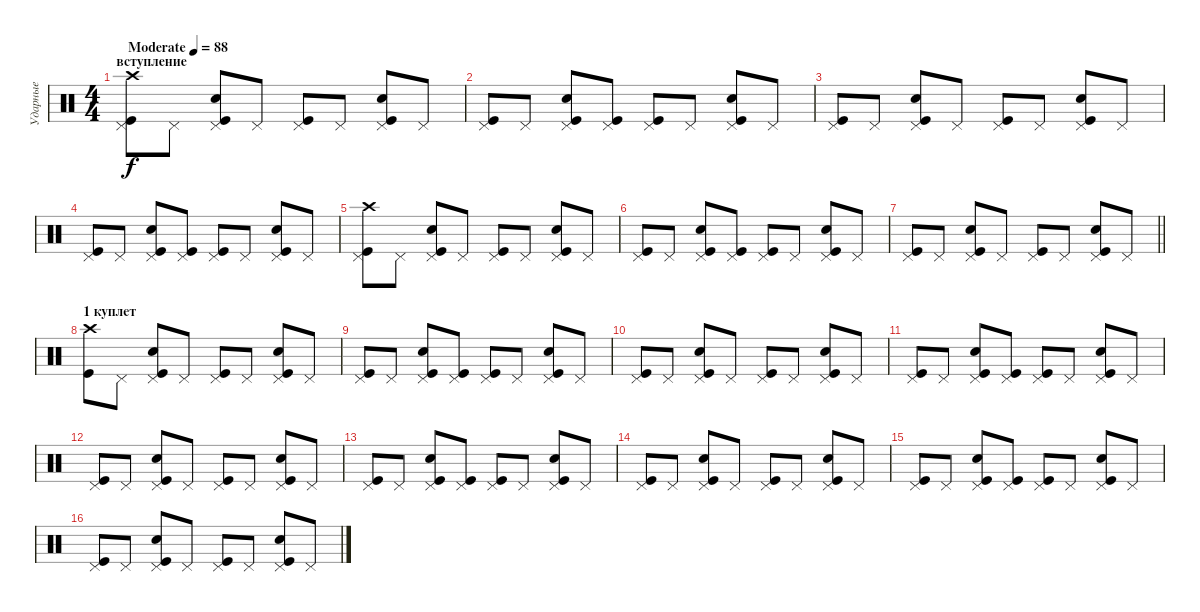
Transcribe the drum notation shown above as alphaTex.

\track ("Ударные" "Ударные") {instrument percussion}
\staff {score}
\articulation defaults
\ts (4 4)
\section ("" "вступление")
\tempo (88 "Moderate")
\clef neutral
\ks c
("Pedal Hi-Hat (hit)" "Kick (hit)" "Crash high (hit)").8{dy f} "Pedal Hi-Hat (hit)".8 ("Pedal Hi-Hat (hit)" "Kick (hit)" "Snare (hit) 2").8 "Pedal Hi-Hat (hit)".8 ("Pedal Hi-Hat (hit)" "Kick (hit)").8 "Pedal Hi-Hat (hit)".8 ("Pedal Hi-Hat (hit)" "Kick (hit)" "Snare (hit) 2").8 "Pedal Hi-Hat (hit)".8 |
("Pedal Hi-Hat (hit)" "Kick (hit)").8 "Pedal Hi-Hat (hit)".8 ("Pedal Hi-Hat (hit)" "Kick (hit)" "Snare (hit) 2").8 ("Pedal Hi-Hat (hit)" "Kick (hit)").8 ("Pedal Hi-Hat (hit)" "Kick (hit)").8 "Pedal Hi-Hat (hit)".8 ("Pedal Hi-Hat (hit)" "Kick (hit)" "Snare (hit) 2").8 "Pedal Hi-Hat (hit)".8 |
("Pedal Hi-Hat (hit)" "Kick (hit)").8 "Pedal Hi-Hat (hit)".8 ("Pedal Hi-Hat (hit)" "Kick (hit)" "Snare (hit) 2").8 "Pedal Hi-Hat (hit)".8 ("Pedal Hi-Hat (hit)" "Kick (hit)").8 "Pedal Hi-Hat (hit)".8 ("Pedal Hi-Hat (hit)" "Kick (hit)" "Snare (hit) 2").8 "Pedal Hi-Hat (hit)".8 |
("Pedal Hi-Hat (hit)" "Kick (hit)").8 "Pedal Hi-Hat (hit)".8 ("Pedal Hi-Hat (hit)" "Kick (hit)" "Snare (hit) 2").8 ("Pedal Hi-Hat (hit)" "Kick (hit)").8 ("Pedal Hi-Hat (hit)" "Kick (hit)").8 "Pedal Hi-Hat (hit)".8 ("Pedal Hi-Hat (hit)" "Kick (hit)" "Snare (hit) 2").8 "Pedal Hi-Hat (hit)".8 |
("Pedal Hi-Hat (hit)" "Kick (hit)" "Crash high (hit)").8 "Pedal Hi-Hat (hit)".8 ("Pedal Hi-Hat (hit)" "Kick (hit)" "Snare (hit) 2").8 "Pedal Hi-Hat (hit)".8 ("Pedal Hi-Hat (hit)" "Kick (hit)").8 "Pedal Hi-Hat (hit)".8 ("Pedal Hi-Hat (hit)" "Kick (hit)" "Snare (hit) 2").8 "Pedal Hi-Hat (hit)".8 |
("Pedal Hi-Hat (hit)" "Kick (hit)").8 "Pedal Hi-Hat (hit)".8 ("Pedal Hi-Hat (hit)" "Kick (hit)" "Snare (hit) 2").8 ("Pedal Hi-Hat (hit)" "Kick (hit)").8 ("Pedal Hi-Hat (hit)" "Kick (hit)").8 "Pedal Hi-Hat (hit)".8 ("Pedal Hi-Hat (hit)" "Kick (hit)" "Snare (hit) 2").8 "Pedal Hi-Hat (hit)".8 |
\barLineRight lightlight
("Pedal Hi-Hat (hit)" "Kick (hit)").8 "Pedal Hi-Hat (hit)".8 ("Pedal Hi-Hat (hit)" "Kick (hit)" "Snare (hit) 2").8 "Pedal Hi-Hat (hit)".8 ("Pedal Hi-Hat (hit)" "Kick (hit)").8 "Pedal Hi-Hat (hit)".8 ("Pedal Hi-Hat (hit)" "Kick (hit)" "Snare (hit) 2").8 "Pedal Hi-Hat (hit)".8 |
\section ("" "1 куплет")
("Crash high (hit)" "Kick (hit)").8 "Pedal Hi-Hat (hit)".8 ("Pedal Hi-Hat (hit)" "Kick (hit)" "Snare (hit) 2").8 "Pedal Hi-Hat (hit)".8 ("Pedal Hi-Hat (hit)" "Kick (hit)").8 "Pedal Hi-Hat (hit)".8 ("Pedal Hi-Hat (hit)" "Kick (hit)" "Snare (hit) 2").8 "Pedal Hi-Hat (hit)".8 |
("Pedal Hi-Hat (hit)" "Kick (hit)").8 "Pedal Hi-Hat (hit)".8 ("Pedal Hi-Hat (hit)" "Kick (hit)" "Snare (hit) 2").8 ("Pedal Hi-Hat (hit)" "Kick (hit)").8 ("Pedal Hi-Hat (hit)" "Kick (hit)").8 "Pedal Hi-Hat (hit)".8 ("Pedal Hi-Hat (hit)" "Kick (hit)" "Snare (hit) 2").8 "Pedal Hi-Hat (hit)".8 |
("Pedal Hi-Hat (hit)" "Kick (hit)").8 "Pedal Hi-Hat (hit)".8 ("Pedal Hi-Hat (hit)" "Kick (hit)" "Snare (hit) 2").8 "Pedal Hi-Hat (hit)".8 ("Pedal Hi-Hat (hit)" "Kick (hit)").8 "Pedal Hi-Hat (hit)".8 ("Pedal Hi-Hat (hit)" "Kick (hit)" "Snare (hit) 2").8 "Pedal Hi-Hat (hit)".8 |
("Pedal Hi-Hat (hit)" "Kick (hit)").8 "Pedal Hi-Hat (hit)".8 ("Pedal Hi-Hat (hit)" "Kick (hit)" "Snare (hit) 2").8 ("Pedal Hi-Hat (hit)" "Kick (hit)").8 ("Pedal Hi-Hat (hit)" "Kick (hit)").8 "Pedal Hi-Hat (hit)".8 ("Pedal Hi-Hat (hit)" "Kick (hit)" "Snare (hit) 2").8 "Pedal Hi-Hat (hit)".8 |
("Pedal Hi-Hat (hit)" "Kick (hit)").8 "Pedal Hi-Hat (hit)".8 ("Pedal Hi-Hat (hit)" "Kick (hit)" "Snare (hit) 2").8 "Pedal Hi-Hat (hit)".8 ("Pedal Hi-Hat (hit)" "Kick (hit)").8 "Pedal Hi-Hat (hit)".8 ("Pedal Hi-Hat (hit)" "Kick (hit)" "Snare (hit) 2").8 "Pedal Hi-Hat (hit)".8 |
("Pedal Hi-Hat (hit)" "Kick (hit)").8 "Pedal Hi-Hat (hit)".8 ("Pedal Hi-Hat (hit)" "Kick (hit)" "Snare (hit) 2").8 ("Pedal Hi-Hat (hit)" "Kick (hit)").8 ("Pedal Hi-Hat (hit)" "Kick (hit)").8 "Pedal Hi-Hat (hit)".8 ("Pedal Hi-Hat (hit)" "Kick (hit)" "Snare (hit) 2").8 "Pedal Hi-Hat (hit)".8 |
("Pedal Hi-Hat (hit)" "Kick (hit)").8 "Pedal Hi-Hat (hit)".8 ("Pedal Hi-Hat (hit)" "Kick (hit)" "Snare (hit) 2").8 "Pedal Hi-Hat (hit)".8 ("Pedal Hi-Hat (hit)" "Kick (hit)").8 "Pedal Hi-Hat (hit)".8 ("Pedal Hi-Hat (hit)" "Kick (hit)" "Snare (hit) 2").8 "Pedal Hi-Hat (hit)".8 |
("Pedal Hi-Hat (hit)" "Kick (hit)").8 "Pedal Hi-Hat (hit)".8 ("Pedal Hi-Hat (hit)" "Kick (hit)" "Snare (hit) 2").8 ("Pedal Hi-Hat (hit)" "Kick (hit)").8 ("Pedal Hi-Hat (hit)" "Kick (hit)").8 "Pedal Hi-Hat (hit)".8 ("Pedal Hi-Hat (hit)" "Kick (hit)" "Snare (hit) 2").8 "Pedal Hi-Hat (hit)".8 |
("Pedal Hi-Hat (hit)" "Kick (hit)").8 "Pedal Hi-Hat (hit)".8 ("Pedal Hi-Hat (hit)" "Kick (hit)" "Snare (hit) 2").8 "Pedal Hi-Hat (hit)".8 ("Pedal Hi-Hat (hit)" "Kick (hit)").8 "Pedal Hi-Hat (hit)".8 ("Pedal Hi-Hat (hit)" "Kick (hit)" "Snare (hit) 2").8 "Pedal Hi-Hat (hit)".8
